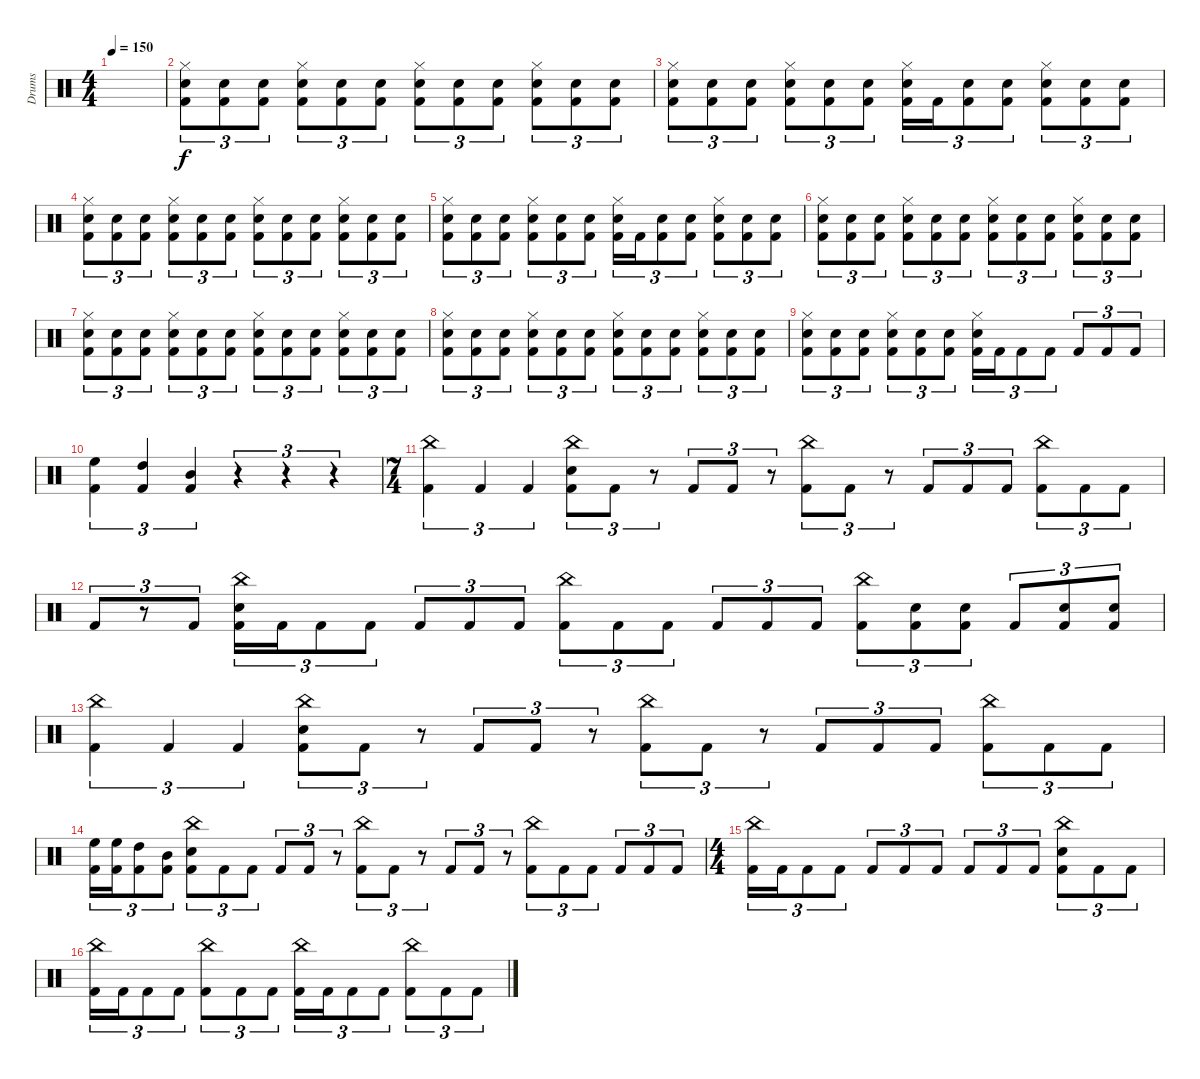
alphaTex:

\track ("Drums" "Drums") {instrument percussion}
\staff {score}
\articulation defaults
\ts (4 4)
\tempo 150
\clef neutral
\ks c
|
("Hi-Hat (closed)" "Snare (hit) 2" "Kick (hit) 2").8{tu (3 2)} ("Snare (hit) 2" "Kick (hit) 2").8{tu (3 2)} ("Snare (hit) 2" "Kick (hit) 2").8{tu (3 2)} ("Hi-Hat (closed)" "Snare (hit) 2" "Kick (hit) 2").8{tu (3 2)} ("Snare (hit) 2" "Kick (hit) 2").8{tu (3 2)} ("Snare (hit) 2" "Kick (hit) 2").8{tu (3 2)} ("Hi-Hat (closed)" "Snare (hit) 2" "Kick (hit) 2").8{tu (3 2)} ("Snare (hit) 2" "Kick (hit) 2").8{tu (3 2)} ("Snare (hit) 2" "Kick (hit) 2").8{tu (3 2)} ("Hi-Hat (closed)" "Snare (hit) 2" "Kick (hit) 2").8{tu (3 2)} ("Snare (hit) 2" "Kick (hit) 2").8{tu (3 2)} ("Snare (hit) 2" "Kick (hit) 2").8{tu (3 2)} |
("Hi-Hat (closed)" "Snare (hit) 2" "Kick (hit) 2").8{tu (3 2)} ("Snare (hit) 2" "Kick (hit) 2").8{tu (3 2)} ("Snare (hit) 2" "Kick (hit) 2").8{tu (3 2)} ("Hi-Hat (closed)" "Snare (hit) 2" "Kick (hit) 2").8{tu (3 2)} ("Snare (hit) 2" "Kick (hit) 2").8{tu (3 2)} ("Snare (hit) 2" "Kick (hit) 2").8{tu (3 2)} ("Hi-Hat (closed)" "Snare (hit) 2" "Kick (hit) 2").16{tu (3 2)} "Kick (hit) 2".16{tu (3 2)} ("Snare (hit) 2" "Kick (hit) 2").8{tu (3 2)} ("Snare (hit) 2" "Kick (hit) 2").8{tu (3 2)} ("Hi-Hat (closed)" "Snare (hit) 2" "Kick (hit) 2").8{tu (3 2)} ("Snare (hit) 2" "Kick (hit) 2").8{tu (3 2)} ("Snare (hit) 2" "Kick (hit) 2").8{tu (3 2)} |
("Hi-Hat (closed)" "Snare (hit) 2" "Kick (hit) 2").8{tu (3 2)} ("Snare (hit) 2" "Kick (hit) 2").8{tu (3 2)} ("Snare (hit) 2" "Kick (hit) 2").8{tu (3 2)} ("Hi-Hat (closed)" "Snare (hit) 2" "Kick (hit) 2").8{tu (3 2)} ("Snare (hit) 2" "Kick (hit) 2").8{tu (3 2)} ("Snare (hit) 2" "Kick (hit) 2").8{tu (3 2)} ("Hi-Hat (closed)" "Snare (hit) 2" "Kick (hit) 2").8{tu (3 2)} ("Snare (hit) 2" "Kick (hit) 2").8{tu (3 2)} ("Snare (hit) 2" "Kick (hit) 2").8{tu (3 2)} ("Hi-Hat (closed)" "Snare (hit) 2" "Kick (hit) 2").8{tu (3 2)} ("Snare (hit) 2" "Kick (hit) 2").8{tu (3 2)} ("Snare (hit) 2" "Kick (hit) 2").8{tu (3 2)} |
("Hi-Hat (closed)" "Snare (hit) 2" "Kick (hit) 2").8{tu (3 2)} ("Snare (hit) 2" "Kick (hit) 2").8{tu (3 2)} ("Snare (hit) 2" "Kick (hit) 2").8{tu (3 2)} ("Hi-Hat (closed)" "Snare (hit) 2" "Kick (hit) 2").8{tu (3 2)} ("Snare (hit) 2" "Kick (hit) 2").8{tu (3 2)} ("Snare (hit) 2" "Kick (hit) 2").8{tu (3 2)} ("Hi-Hat (closed)" "Snare (hit) 2" "Kick (hit) 2").16{tu (3 2)} "Kick (hit) 2".16{tu (3 2)} ("Snare (hit) 2" "Kick (hit) 2").8{tu (3 2)} ("Snare (hit) 2" "Kick (hit) 2").8{tu (3 2)} ("Hi-Hat (closed)" "Snare (hit) 2" "Kick (hit) 2").8{tu (3 2)} ("Snare (hit) 2" "Kick (hit) 2").8{tu (3 2)} ("Snare (hit) 2" "Kick (hit) 2").8{tu (3 2)} |
("Hi-Hat (closed)" "Snare (hit) 2" "Kick (hit) 2").8{tu (3 2)} ("Snare (hit) 2" "Kick (hit) 2").8{tu (3 2)} ("Snare (hit) 2" "Kick (hit) 2").8{tu (3 2)} ("Hi-Hat (closed)" "Snare (hit) 2" "Kick (hit) 2").8{tu (3 2)} ("Snare (hit) 2" "Kick (hit) 2").8{tu (3 2)} ("Snare (hit) 2" "Kick (hit) 2").8{tu (3 2)} ("Hi-Hat (closed)" "Snare (hit) 2" "Kick (hit) 2").8{tu (3 2)} ("Snare (hit) 2" "Kick (hit) 2").8{tu (3 2)} ("Snare (hit) 2" "Kick (hit) 2").8{tu (3 2)} ("Hi-Hat (closed)" "Snare (hit) 2" "Kick (hit) 2").8{tu (3 2)} ("Snare (hit) 2" "Kick (hit) 2").8{tu (3 2)} ("Snare (hit) 2" "Kick (hit) 2").8{tu (3 2)} |
("Hi-Hat (closed)" "Snare (hit) 2" "Kick (hit) 2").8{tu (3 2)} ("Snare (hit) 2" "Kick (hit) 2").8{tu (3 2)} ("Snare (hit) 2" "Kick (hit) 2").8{tu (3 2)} ("Hi-Hat (closed)" "Snare (hit) 2" "Kick (hit) 2").8{tu (3 2)} ("Snare (hit) 2" "Kick (hit) 2").8{tu (3 2)} ("Snare (hit) 2" "Kick (hit) 2").8{tu (3 2)} ("Hi-Hat (closed)" "Snare (hit) 2" "Kick (hit) 2").8{tu (3 2)} ("Snare (hit) 2" "Kick (hit) 2").8{tu (3 2)} ("Snare (hit) 2" "Kick (hit) 2").8{tu (3 2)} ("Hi-Hat (closed)" "Snare (hit) 2" "Kick (hit) 2").8{tu (3 2)} ("Snare (hit) 2" "Kick (hit) 2").8{tu (3 2)} ("Snare (hit) 2" "Kick (hit) 2").8{tu (3 2)} |
("Hi-Hat (closed)" "Snare (hit) 2" "Kick (hit) 2").8{tu (3 2)} ("Snare (hit) 2" "Kick (hit) 2").8{tu (3 2)} ("Snare (hit) 2" "Kick (hit) 2").8{tu (3 2)} ("Hi-Hat (closed)" "Snare (hit) 2" "Kick (hit) 2").8{tu (3 2)} ("Snare (hit) 2" "Kick (hit) 2").8{tu (3 2)} ("Snare (hit) 2" "Kick (hit) 2").8{tu (3 2)} ("Hi-Hat (closed)" "Snare (hit) 2" "Kick (hit) 2").8{tu (3 2)} ("Snare (hit) 2" "Kick (hit) 2").8{tu (3 2)} ("Snare (hit) 2" "Kick (hit) 2").8{tu (3 2)} ("Hi-Hat (closed)" "Snare (hit) 2" "Kick (hit) 2").8{tu (3 2)} ("Snare (hit) 2" "Kick (hit) 2").8{tu (3 2)} ("Snare (hit) 2" "Kick (hit) 2").8{tu (3 2)} |
("Hi-Hat (closed)" "Snare (hit) 2" "Kick (hit) 2").8{tu (3 2)} ("Snare (hit) 2" "Kick (hit) 2").8{tu (3 2)} ("Snare (hit) 2" "Kick (hit) 2").8{tu (3 2)} ("Hi-Hat (closed)" "Snare (hit) 2" "Kick (hit) 2").8{tu (3 2)} ("Snare (hit) 2" "Kick (hit) 2").8{tu (3 2)} ("Snare (hit) 2" "Kick (hit) 2").8{tu (3 2)} ("Hi-Hat (closed)" "Snare (hit) 2" "Kick (hit) 2").16{tu (3 2)} "Kick (hit) 2".16{tu (3 2)} "Kick (hit) 2".8{tu (3 2)} "Kick (hit) 2".8{tu (3 2)} "Kick (hit) 2".8{tu (3 2)} "Kick (hit) 2".8{tu (3 2)} "Kick (hit) 2".8{tu (3 2)} |
("High Floor Tom (hit)" "Kick (hit) 2").4{tu (3 2)} ("High Tom (hit)" "Kick (hit) 2").4{tu (3 2)} ("Mid Tom (hit)" "Kick (hit) 2").4{tu (3 2)} r.4{tu (3 2)} r.4{tu (3 2)} r.4{tu (3 2)} |
\ts (7 4)
("China (hit)" "Kick (hit) 2").4{tu (3 2)} "Kick (hit) 2".4{tu (3 2)} "Kick (hit) 2".4{tu (3 2)} ("China (hit)" "Snare (hit) 2" "Kick (hit) 2").8{tu (3 2)} "Kick (hit) 2".8{tu (3 2)} r.8{tu (3 2)} "Kick (hit) 2".8{tu (3 2)} "Kick (hit) 2".8{tu (3 2)} r.8{tu (3 2)} ("China (hit)" "Kick (hit) 2").8{tu (3 2)} "Kick (hit) 2".8{tu (3 2)} r.8{tu (3 2)} "Kick (hit) 2".8{tu (3 2)} "Kick (hit) 2".8{tu (3 2)} "Kick (hit) 2".8{tu (3 2)} ("China (hit)" "Kick (hit) 2").8{tu (3 2)} "Kick (hit) 2".8{tu (3 2)} "Kick (hit) 2".8{tu (3 2)} |
"Kick (hit) 2".8{tu (3 2)} r.8{tu (3 2)} "Kick (hit) 2".8{tu (3 2)} ("China (hit)" "Snare (hit) 2" "Kick (hit) 2").16{tu (3 2)} "Kick (hit) 2".16{tu (3 2)} "Kick (hit) 2".8{tu (3 2)} "Kick (hit) 2".8{tu (3 2)} "Kick (hit) 2".8{tu (3 2)} "Kick (hit) 2".8{tu (3 2)} "Kick (hit) 2".8{tu (3 2)} ("China (hit)" "Kick (hit) 2").8{tu (3 2)} "Kick (hit) 2".8{tu (3 2)} "Kick (hit) 2".8{tu (3 2)} "Kick (hit) 2".8{tu (3 2)} "Kick (hit) 2".8{tu (3 2)} "Kick (hit) 2".8{tu (3 2)} ("China (hit)" "Kick (hit) 2").8{tu (3 2)} ("Snare (hit) 2" "Kick (hit) 2").8{tu (3 2)} ("Snare (hit) 2" "Kick (hit) 2").8{tu (3 2)} "Kick (hit) 2".8{tu (3 2)} ("Snare (hit) 2" "Kick (hit) 2").8{tu (3 2)} ("Snare (hit) 2" "Kick (hit) 2").8{tu (3 2)} |
("China (hit)" "Kick (hit) 2").4{tu (3 2)} "Kick (hit) 2".4{tu (3 2)} "Kick (hit) 2".4{tu (3 2)} ("China (hit)" "Snare (hit) 2" "Kick (hit) 2").8{tu (3 2)} "Kick (hit) 2".8{tu (3 2)} r.8{tu (3 2)} "Kick (hit) 2".8{tu (3 2)} "Kick (hit) 2".8{tu (3 2)} r.8{tu (3 2)} ("China (hit)" "Kick (hit) 2").8{tu (3 2)} "Kick (hit) 2".8{tu (3 2)} r.8{tu (3 2)} "Kick (hit) 2".8{tu (3 2)} "Kick (hit) 2".8{tu (3 2)} "Kick (hit) 2".8{tu (3 2)} ("China (hit)" "Kick (hit) 2").8{tu (3 2)} "Kick (hit) 2".8{tu (3 2)} "Kick (hit) 2".8{tu (3 2)} |
("High Floor Tom (hit)" "Kick (hit) 2").16{tu (3 2)} ("High Floor Tom (hit)" "Kick (hit) 2").16{tu (3 2)} ("High Tom (hit)" "Kick (hit) 2").8{tu (3 2)} ("Mid Tom (hit)" "Kick (hit) 2").8{tu (3 2)} ("China (hit)" "Snare (hit) 2" "Kick (hit) 2").8{tu (3 2)} "Kick (hit) 2".8{tu (3 2)} "Kick (hit) 2".8{tu (3 2)} "Kick (hit) 2".8{tu (3 2)} "Kick (hit) 2".8{tu (3 2)} r.8{tu (3 2)} ("China (hit)" "Kick (hit) 2").8{tu (3 2)} "Kick (hit) 2".8{tu (3 2)} r.8{tu (3 2)} "Kick (hit) 2".8{tu (3 2)} "Kick (hit) 2".8{tu (3 2)} r.8{tu (3 2)} ("China (hit)" "Kick (hit) 2").8{tu (3 2)} "Kick (hit) 2".8{tu (3 2)} "Kick (hit) 2".8{tu (3 2)} "Kick (hit) 2".8{tu (3 2)} "Kick (hit) 2".8{tu (3 2)} "Kick (hit) 2".8{tu (3 2)} |
\ts (4 4)
("China (hit)" "Kick (hit) 2").16{tu (3 2)} "Kick (hit) 2".16{tu (3 2)} "Kick (hit) 2".8{tu (3 2)} "Kick (hit) 2".8{tu (3 2)} "Kick (hit) 2".8{tu (3 2)} "Kick (hit) 2".8{tu (3 2)} "Kick (hit) 2".8{tu (3 2)} "Kick (hit) 2".8{tu (3 2)} "Kick (hit) 2".8{tu (3 2)} "Kick (hit) 2".8{tu (3 2)} ("China (hit)" "Snare (hit) 2" "Kick (hit) 2").8{tu (3 2)} "Kick (hit) 2".8{tu (3 2)} "Kick (hit) 2".8{tu (3 2)} |
("China (hit)" "Kick (hit) 2").16{tu (3 2)} "Kick (hit) 2".16{tu (3 2)} "Kick (hit) 2".8{tu (3 2)} "Kick (hit) 2".8{tu (3 2)} ("China (hit)" "Kick (hit) 2").8{tu (3 2)} "Kick (hit) 2".8{tu (3 2)} "Kick (hit) 2".8{tu (3 2)} ("China (hit)" "Kick (hit) 2").16{tu (3 2)} "Kick (hit) 2".16{tu (3 2)} "Kick (hit) 2".8{tu (3 2)} "Kick (hit) 2".8{tu (3 2)} ("China (hit)" "Kick (hit) 2").8{tu (3 2)} "Kick (hit) 2".8{tu (3 2)} "Kick (hit) 2".8{tu (3 2)}
